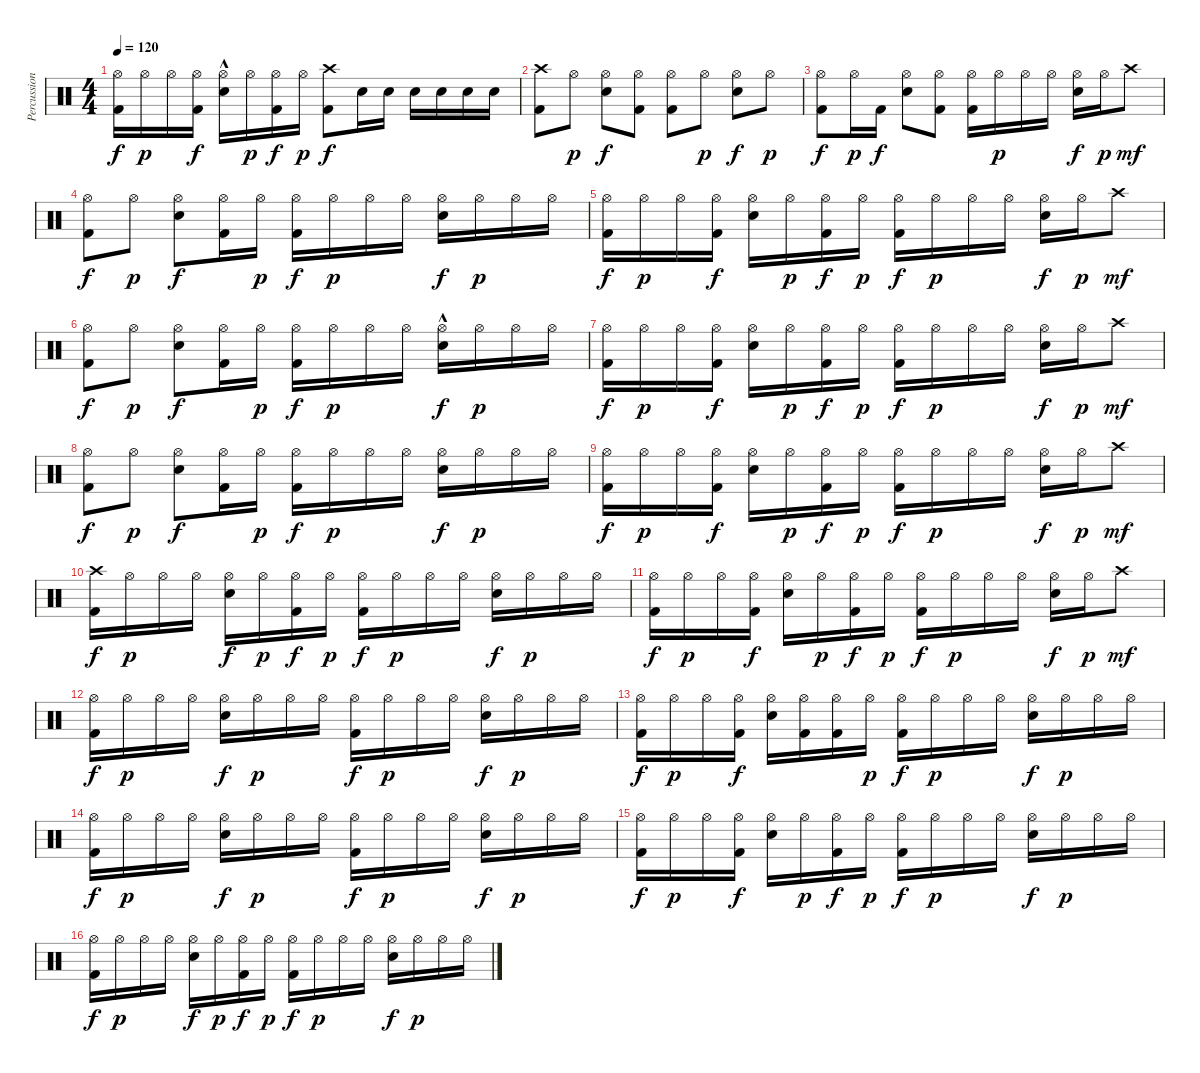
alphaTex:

\track ("Percussion" "Percussion") {instrument percussion}
\staff {score}
\articulation defaults
\ts (4 4)
\tempo 120
\clef neutral
\ks c
("Hi-Hat (open)" "Kick (hit) 2").16{dy f} "Hi-Hat (open)".16{dy p} "Hi-Hat (open)".16 ("Hi-Hat (open)" "Kick (hit) 2").16{dy f} ("Hi-Hat (open)"{hac} "Electric Snare (hit)").16 "Hi-Hat (open)".16{dy p} ("Hi-Hat (open)" "Kick (hit) 2").16{dy f} "Hi-Hat (open)".16{dy p} ("Crash high (hit)" "Kick (hit) 2").8{dy f} "Electric Snare (hit)".16 "Electric Snare (hit)".16 "Electric Snare (hit)".16 "Electric Snare (hit)".16 "Electric Snare (hit)".16 "Electric Snare (hit)".16 |
("Crash high (hit)" "Kick (hit) 2").8 "Hi-Hat (open)".8{dy p} ("Hi-Hat (open)" "Electric Snare (hit)").8{dy f} ("Hi-Hat (open)" "Kick (hit) 2").8 ("Hi-Hat (open)" "Kick (hit) 2").8 "Hi-Hat (open)".8{dy p} ("Hi-Hat (open)" "Electric Snare (hit)").8{dy f} "Hi-Hat (open)".8{dy p} |
("Hi-Hat (open)" "Kick (hit) 2").8{dy f} "Hi-Hat (open)".16{dy p} "Kick (hit) 2".16{dy f} ("Hi-Hat (open)" "Electric Snare (hit)").8 ("Hi-Hat (open)" "Kick (hit) 2").8 ("Hi-Hat (open)" "Kick (hit) 2").16 "Hi-Hat (open)".16{dy p} "Hi-Hat (open)".16 "Hi-Hat (open)".16 ("Hi-Hat (open)" "Electric Snare (hit)").16{dy f} "Hi-Hat (open)".16{dy p} "Crash high (hit)".8{dy mf} |
("Hi-Hat (open)" "Kick (hit) 2").8{dy f} "Hi-Hat (open)".8{dy p} ("Hi-Hat (open)" "Electric Snare (hit)").8{dy f} ("Hi-Hat (open)" "Kick (hit) 2").16 "Hi-Hat (open)".16{dy p} ("Hi-Hat (open)" "Kick (hit) 2").16{dy f} "Hi-Hat (open)".16{dy p} "Hi-Hat (open)".16 "Hi-Hat (open)".16 ("Hi-Hat (open)" "Electric Snare (hit)").16{dy f} "Hi-Hat (open)".16{dy p} "Hi-Hat (open)".16 "Hi-Hat (open)".16 |
("Hi-Hat (open)" "Kick (hit) 2").16{dy f} "Hi-Hat (open)".16{dy p} "Hi-Hat (open)".16 ("Hi-Hat (open)" "Kick (hit) 2").16{dy f} ("Hi-Hat (open)" "Electric Snare (hit)").16 "Hi-Hat (open)".16{dy p} ("Hi-Hat (open)" "Kick (hit) 2").16{dy f} "Hi-Hat (open)".16{dy p} ("Hi-Hat (open)" "Kick (hit) 2").16{dy f} "Hi-Hat (open)".16{dy p} "Hi-Hat (open)".16 "Hi-Hat (open)".16 ("Hi-Hat (open)" "Electric Snare (hit)").16{dy f} "Hi-Hat (open)".16{dy p} "Crash high (hit)".8{dy mf} |
("Hi-Hat (open)" "Kick (hit) 2").8{dy f} "Hi-Hat (open)".8{dy p} ("Hi-Hat (open)" "Electric Snare (hit)").8{dy f} ("Hi-Hat (open)" "Kick (hit) 2").16 "Hi-Hat (open)".16{dy p} ("Hi-Hat (open)" "Kick (hit) 2").16{dy f} "Hi-Hat (open)".16{dy p} "Hi-Hat (open)".16 "Hi-Hat (open)".16 ("Hi-Hat (open)"{hac} "Electric Snare (hit)").16{dy f} "Hi-Hat (open)".16{dy p} "Hi-Hat (open)".16 "Hi-Hat (open)".16 |
("Hi-Hat (open)" "Kick (hit) 2").16{dy f} "Hi-Hat (open)".16{dy p} "Hi-Hat (open)".16 ("Hi-Hat (open)" "Kick (hit) 2").16{dy f} ("Hi-Hat (open)" "Electric Snare (hit)").16 "Hi-Hat (open)".16{dy p} ("Hi-Hat (open)" "Kick (hit) 2").16{dy f} "Hi-Hat (open)".16{dy p} ("Hi-Hat (open)" "Kick (hit) 2").16{dy f} "Hi-Hat (open)".16{dy p} "Hi-Hat (open)".16 "Hi-Hat (open)".16 ("Hi-Hat (open)" "Electric Snare (hit)").16{dy f} "Hi-Hat (open)".16{dy p} "Crash high (hit)".8{dy mf} |
("Hi-Hat (open)" "Kick (hit) 2").8{dy f} "Hi-Hat (open)".8{dy p} ("Hi-Hat (open)" "Electric Snare (hit)").8{dy f} ("Hi-Hat (open)" "Kick (hit) 2").16 "Hi-Hat (open)".16{dy p} ("Hi-Hat (open)" "Kick (hit) 2").16{dy f} "Hi-Hat (open)".16{dy p} "Hi-Hat (open)".16 "Hi-Hat (open)".16 ("Hi-Hat (open)" "Electric Snare (hit)").16{dy f} "Hi-Hat (open)".16{dy p} "Hi-Hat (open)".16 "Hi-Hat (open)".16 |
("Hi-Hat (open)" "Kick (hit) 2").16{dy f} "Hi-Hat (open)".16{dy p} "Hi-Hat (open)".16 ("Hi-Hat (open)" "Kick (hit) 2").16{dy f} ("Hi-Hat (open)" "Electric Snare (hit)").16 "Hi-Hat (open)".16{dy p} ("Hi-Hat (open)" "Kick (hit) 2").16{dy f} "Hi-Hat (open)".16{dy p} ("Hi-Hat (open)" "Kick (hit) 2").16{dy f} "Hi-Hat (open)".16{dy p} "Hi-Hat (open)".16 "Hi-Hat (open)".16 ("Hi-Hat (open)" "Electric Snare (hit)").16{dy f} "Hi-Hat (open)".16{dy p} "Crash high (hit)".8{dy mf} |
("Crash high (hit)" "Kick (hit) 2").16{dy f} "Hi-Hat (open)".16{dy p} "Hi-Hat (open)".16 "Hi-Hat (open)".16 ("Hi-Hat (open)" "Electric Snare (hit)").16{dy f} "Hi-Hat (open)".16{dy p} ("Hi-Hat (open)" "Kick (hit) 2").16{dy f} "Hi-Hat (open)".16{dy p} ("Hi-Hat (open)" "Kick (hit) 2").16{dy f} "Hi-Hat (open)".16{dy p} "Hi-Hat (open)".16 "Hi-Hat (open)".16 ("Hi-Hat (open)" "Electric Snare (hit)").16{dy f} "Hi-Hat (open)".16{dy p} "Hi-Hat (open)".16 "Hi-Hat (open)".16 |
("Hi-Hat (open)" "Kick (hit) 2").16{dy f} "Hi-Hat (open)".16{dy p} "Hi-Hat (open)".16 ("Hi-Hat (open)" "Kick (hit) 2").16{dy f} ("Hi-Hat (open)" "Electric Snare (hit)").16 "Hi-Hat (open)".16{dy p} ("Hi-Hat (open)" "Kick (hit) 2").16{dy f} "Hi-Hat (open)".16{dy p} ("Hi-Hat (open)" "Kick (hit) 2").16{dy f} "Hi-Hat (open)".16{dy p} "Hi-Hat (open)".16 "Hi-Hat (open)".16 ("Hi-Hat (open)" "Electric Snare (hit)").16{dy f} "Hi-Hat (open)".16{dy p} "Crash high (hit)".8{dy mf} |
("Hi-Hat (open)" "Kick (hit) 2").16{dy f} "Hi-Hat (open)".16{dy p} "Hi-Hat (open)".16 "Hi-Hat (open)".16 ("Hi-Hat (open)" "Electric Snare (hit)").16{dy f} "Hi-Hat (open)".16{dy p} "Hi-Hat (open)".16 "Hi-Hat (open)".16 ("Hi-Hat (open)" "Kick (hit) 2").16{dy f} "Hi-Hat (open)".16{dy p} "Hi-Hat (open)".16 "Hi-Hat (open)".16 ("Hi-Hat (open)" "Electric Snare (hit)").16{dy f} "Hi-Hat (open)".16{dy p} "Hi-Hat (open)".16 "Hi-Hat (open)".16 |
("Hi-Hat (open)" "Kick (hit) 2").16{dy f} "Hi-Hat (open)".16{dy p} "Hi-Hat (open)".16 ("Hi-Hat (open)" "Kick (hit) 2").16{dy f} ("Hi-Hat (open)" "Electric Snare (hit)").16 ("Hi-Hat (open)" "Kick (hit) 2").16 ("Hi-Hat (open)" "Kick (hit) 2").16 "Hi-Hat (open)".16{dy p} ("Hi-Hat (open)" "Kick (hit) 2").16{dy f} "Hi-Hat (open)".16{dy p} "Hi-Hat (open)".16 "Hi-Hat (open)".16 ("Hi-Hat (open)" "Electric Snare (hit)").16{dy f} "Hi-Hat (open)".16{dy p} "Hi-Hat (open)".16 "Hi-Hat (open)".16 |
("Hi-Hat (open)" "Kick (hit) 2").16{dy f} "Hi-Hat (open)".16{dy p} "Hi-Hat (open)".16 "Hi-Hat (open)".16 ("Hi-Hat (open)" "Electric Snare (hit)").16{dy f} "Hi-Hat (open)".16{dy p} "Hi-Hat (open)".16 "Hi-Hat (open)".16 ("Hi-Hat (open)" "Kick (hit) 2").16{dy f} "Hi-Hat (open)".16{dy p} "Hi-Hat (open)".16 "Hi-Hat (open)".16 ("Hi-Hat (open)" "Electric Snare (hit)").16{dy f} "Hi-Hat (open)".16{dy p} "Hi-Hat (open)".16 "Hi-Hat (open)".16 |
("Hi-Hat (open)" "Kick (hit) 2").16{dy f} "Hi-Hat (open)".16{dy p} "Hi-Hat (open)".16 ("Hi-Hat (open)" "Kick (hit) 2").16{dy f} ("Hi-Hat (open)" "Electric Snare (hit)").16 "Hi-Hat (open)".16{dy p} ("Hi-Hat (open)" "Kick (hit) 2").16{dy f} "Hi-Hat (open)".16{dy p} ("Hi-Hat (open)" "Kick (hit) 2").16{dy f} "Hi-Hat (open)".16{dy p} "Hi-Hat (open)".16 "Hi-Hat (open)".16 ("Hi-Hat (open)" "Electric Snare (hit)").16{dy f} "Hi-Hat (open)".16{dy p} "Hi-Hat (open)".16 "Hi-Hat (open)".16 |
("Hi-Hat (open)" "Kick (hit) 2").16{dy f} "Hi-Hat (open)".16{dy p} "Hi-Hat (open)".16 "Hi-Hat (open)".16 ("Hi-Hat (open)" "Electric Snare (hit)").16{dy f} "Hi-Hat (open)".16{dy p} ("Hi-Hat (open)" "Kick (hit) 2").16{dy f} "Hi-Hat (open)".16{dy p} ("Hi-Hat (open)" "Kick (hit) 2").16{dy f} "Hi-Hat (open)".16{dy p} "Hi-Hat (open)".16 "Hi-Hat (open)".16 ("Hi-Hat (open)" "Electric Snare (hit)").16{dy f} "Hi-Hat (open)".16{dy p} "Hi-Hat (open)".16 "Hi-Hat (open)".16
